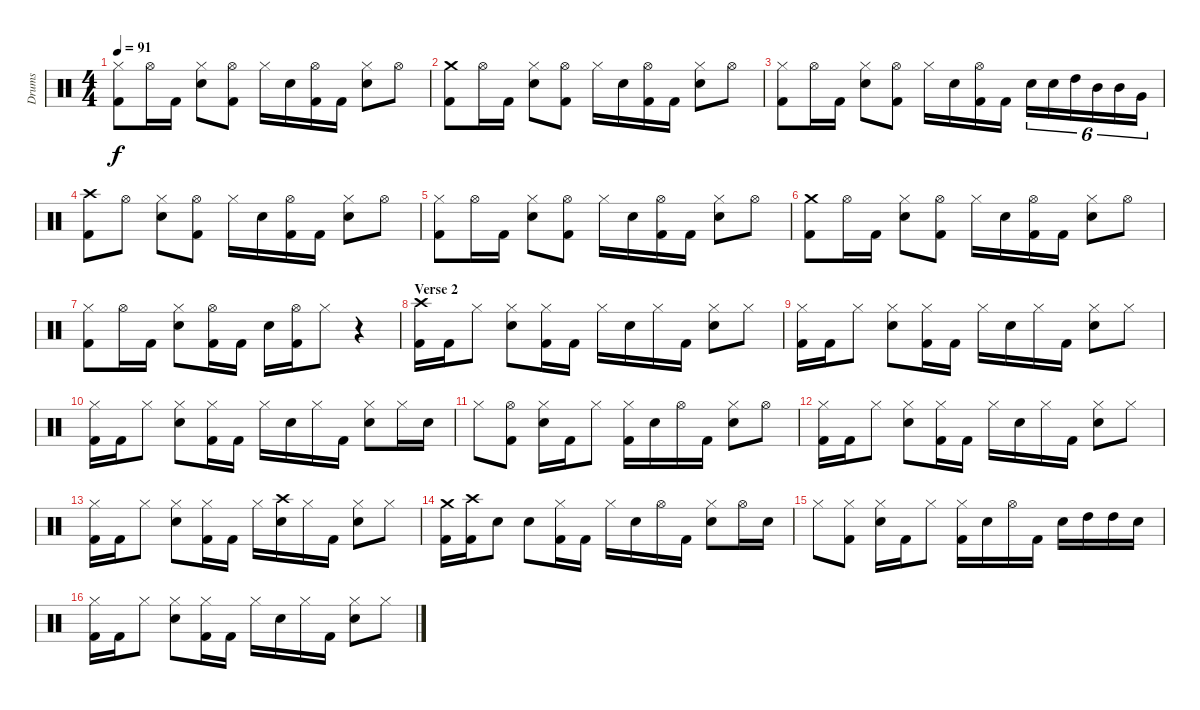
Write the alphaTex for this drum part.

\track ("Drums" "Drums") {instrument percussion}
\staff {score}
\articulation defaults
\ts (4 4)
\tempo 91
\clef neutral
\ks c
("Hi-Hat (closed)" "Kick (hit) 2").8{dy f} "Hi-Hat (open)".16 "Kick (hit) 2".16 ("Hi-Hat (closed)" "Electric Snare (hit)").8 ("Hi-Hat (open)" "Kick (hit) 2").8 "Hi-Hat (closed)".16 "Electric Snare (hit)".16 ("Hi-Hat (open)" "Kick (hit) 2").16 "Kick (hit) 2".16 ("Hi-Hat (closed)" "Electric Snare (hit)").8 "Hi-Hat (open)".8 |
("Crash medium (hit)" "Kick (hit) 2").8 "Hi-Hat (open)".16 "Kick (hit) 2".16 ("Hi-Hat (closed)" "Electric Snare (hit)").8 ("Hi-Hat (open)" "Kick (hit) 2").8 "Hi-Hat (closed)".16 "Electric Snare (hit)".16 ("Hi-Hat (open)" "Kick (hit) 2").16 "Kick (hit) 2".16 ("Hi-Hat (closed)" "Electric Snare (hit)").8 "Hi-Hat (open)".8 |
("Hi-Hat (closed)" "Kick (hit) 2").8 "Hi-Hat (open)".16 "Kick (hit) 2".16 ("Hi-Hat (closed)" "Electric Snare (hit)").8 ("Hi-Hat (open)" "Kick (hit) 2").8 "Hi-Hat (closed)".16 "Electric Snare (hit)".16 ("Hi-Hat (open)" "Kick (hit) 2").16 "Kick (hit) 2".16 "Electric Snare (hit)".16{tu (6 4)} "Electric Snare (hit)".16{tu (6 4)} "High Tom (hit)".16{tu (6 4)} "Mid Tom (hit)".16{tu (6 4)} "Mid Tom (hit)".16{tu (6 4)} "Very Low Tom (hit)".16{tu (6 4)} |
("Crash high (hit)" "Kick (hit) 2").8 "Hi-Hat (open)".8 ("Hi-Hat (closed)" "Electric Snare (hit)").8 ("Hi-Hat (open)" "Kick (hit) 2").8 "Hi-Hat (closed)".16 "Electric Snare (hit)".16 ("Hi-Hat (open)" "Kick (hit) 2").16 "Kick (hit) 2".16 ("Hi-Hat (closed)" "Electric Snare (hit)").8 "Hi-Hat (open)".8 |
("Hi-Hat (closed)" "Kick (hit) 2").8 "Hi-Hat (open)".16 "Kick (hit) 2".16 ("Hi-Hat (closed)" "Electric Snare (hit)").8 ("Hi-Hat (open)" "Kick (hit) 2").8 "Hi-Hat (closed)".16 "Electric Snare (hit)".16 ("Hi-Hat (open)" "Kick (hit) 2").16 "Kick (hit) 2".16 ("Hi-Hat (closed)" "Electric Snare (hit)").8 "Hi-Hat (open)".8 |
("Crash medium (hit)" "Kick (hit) 2").8 "Hi-Hat (open)".16 "Kick (hit) 2".16 ("Hi-Hat (closed)" "Electric Snare (hit)").8 ("Hi-Hat (open)" "Kick (hit) 2").8 "Hi-Hat (closed)".16 "Electric Snare (hit)".16 ("Hi-Hat (open)" "Kick (hit) 2").16 "Kick (hit) 2".16 ("Hi-Hat (closed)" "Electric Snare (hit)").8 "Hi-Hat (open)".8 |
("Hi-Hat (closed)" "Kick (hit) 2").8 "Hi-Hat (open)".16 "Kick (hit) 2".16 ("Hi-Hat (closed)" "Electric Snare (hit)").8 ("Hi-Hat (open)" "Kick (hit) 2").16 "Kick (hit) 2".16 "Electric Snare (hit)".16 ("Hi-Hat (open)" "Kick (hit) 2").16 "Hi-Hat (closed)".8 r.4 |
\section ("" "Verse 2")
("Crash high (hit)" "Kick (hit) 2").16 "Kick (hit) 2".16 "Hi-Hat (closed)".8 ("Hi-Hat (closed)" "Electric Snare (hit)").8 ("Hi-Hat (closed)" "Kick (hit) 2").16 "Kick (hit) 2".16 "Hi-Hat (closed)".16 "Electric Snare (hit)".16 "Hi-Hat (closed)".16 "Kick (hit) 2".16 ("Hi-Hat (closed)" "Electric Snare (hit)").8 "Hi-Hat (closed)".8 |
("Hi-Hat (closed)" "Kick (hit) 2").16 "Kick (hit) 2".16 "Hi-Hat (closed)".8 ("Hi-Hat (closed)" "Electric Snare (hit)").8 ("Hi-Hat (closed)" "Kick (hit) 2").16 "Kick (hit) 2".16 "Hi-Hat (closed)".16 "Electric Snare (hit)".16 "Hi-Hat (closed)".16 "Kick (hit) 2".16 ("Hi-Hat (closed)" "Electric Snare (hit)").8 "Hi-Hat (closed)".8 |
("Hi-Hat (closed)" "Kick (hit) 2").16 "Kick (hit) 2".16 "Hi-Hat (closed)".8 ("Hi-Hat (closed)" "Electric Snare (hit)").8 ("Hi-Hat (closed)" "Kick (hit) 2").16 "Kick (hit) 2".16 "Hi-Hat (closed)".16 "Electric Snare (hit)".16 "Hi-Hat (closed)".16 "Kick (hit) 2".16 ("Hi-Hat (closed)" "Electric Snare (hit)").8 "Hi-Hat (closed)".16 "Electric Snare (hit)".16 |
"Hi-Hat (closed)".8 ("Hi-Hat (open)" "Kick (hit) 2").8 ("Hi-Hat (closed)" "Electric Snare (hit)").16 "Kick (hit) 2".16 "Hi-Hat (closed)".8 ("Hi-Hat (closed)" "Kick (hit) 2").16 "Electric Snare (hit)".16 "Hi-Hat (open)".16 "Kick (hit) 2".16 ("Hi-Hat (closed)" "Electric Snare (hit)").8 "Hi-Hat (open)".8 |
("Hi-Hat (closed)" "Kick (hit) 2").16 "Kick (hit) 2".16 "Hi-Hat (closed)".8 ("Hi-Hat (closed)" "Electric Snare (hit)").8 ("Hi-Hat (closed)" "Kick (hit) 2").16 "Kick (hit) 2".16 "Hi-Hat (closed)".16 "Electric Snare (hit)".16 "Hi-Hat (closed)".16 "Kick (hit) 2".16 ("Hi-Hat (closed)" "Electric Snare (hit)").8 "Hi-Hat (closed)".8 |
("Hi-Hat (closed)" "Kick (hit) 2").16 "Kick (hit) 2".16 "Hi-Hat (closed)".8 ("Hi-Hat (closed)" "Electric Snare (hit)").8 ("Hi-Hat (closed)" "Kick (hit) 2").16 "Kick (hit) 2".16 "Hi-Hat (closed)".16 ("Crash high (hit)" "Electric Snare (hit)").16 "Hi-Hat (closed)".16 "Kick (hit) 2".16 ("Hi-Hat (closed)" "Electric Snare (hit)").8 "Hi-Hat (closed)".8 |
("Crash medium (hit)" "Kick (hit) 2").16 ("Crash high (hit)" "Kick (hit) 2").16 "Electric Snare (hit)".8 "Electric Snare (hit)".8 ("Hi-Hat (closed)" "Kick (hit) 2").16 "Kick (hit) 2".16 "Hi-Hat (closed)".16 "Electric Snare (hit)".16 "Hi-Hat (open)".16 "Kick (hit) 2".16 ("Hi-Hat (closed)" "Electric Snare (hit)").8 "Hi-Hat (open)".16 "Electric Snare (hit)".16 |
"Hi-Hat (closed)".8 ("Hi-Hat (closed)" "Kick (hit) 2").8 ("Hi-Hat (closed)" "Electric Snare (hit)").16 "Kick (hit) 2".16 "Hi-Hat (closed)".8 ("Hi-Hat (closed)" "Kick (hit) 2").16 "Electric Snare (hit)".16 "Hi-Hat (open)".16 "Kick (hit) 2".16 "Electric Snare (hit)".16 "High Tom (hit)".16 "High Tom (hit)".16 "Electric Snare (hit)".16 |
("Hi-Hat (closed)" "Kick (hit) 2").16 "Kick (hit) 2".16 "Hi-Hat (closed)".8 ("Hi-Hat (closed)" "Electric Snare (hit)").8 ("Hi-Hat (closed)" "Kick (hit) 2").16 "Kick (hit) 2".16 "Hi-Hat (closed)".16 "Electric Snare (hit)".16 "Hi-Hat (closed)".16 "Kick (hit) 2".16 ("Hi-Hat (closed)" "Electric Snare (hit)").8 "Hi-Hat (closed)".8
